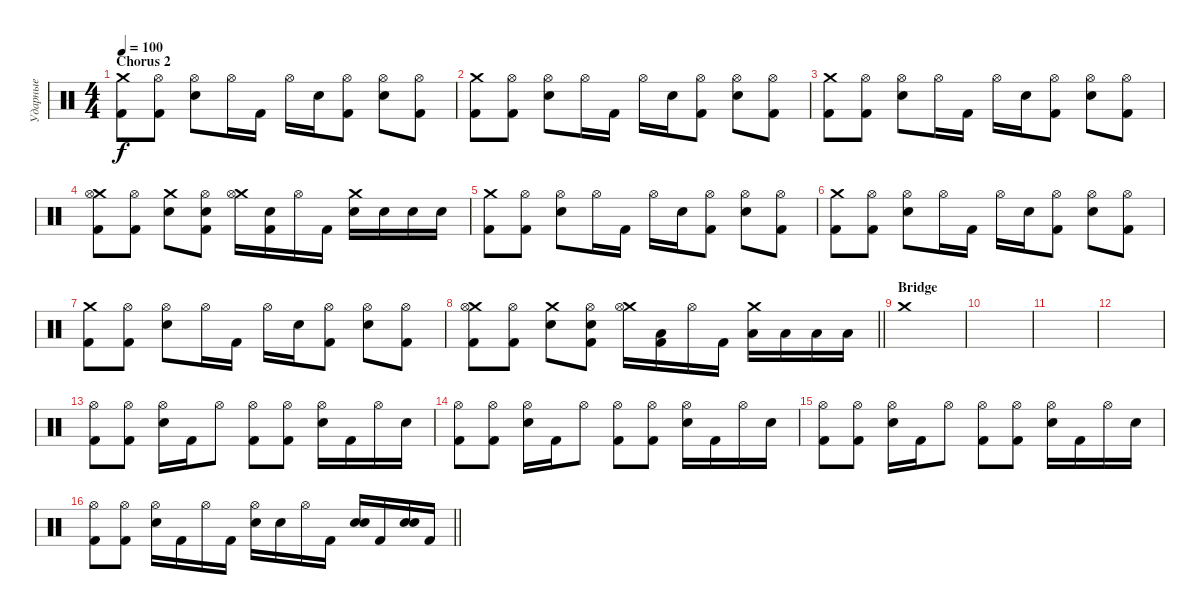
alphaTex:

\track ("Ударные" "Ударные") {instrument percussion}
\staff
\articulation defaults
\ts (4 4)
\section ("" "Chorus 2")
\tempo 100
\clef neutral
\ks c
("Crash medium (hit)" "Kick (hit) 2").8{dy f} ("Hi-Hat (open)" "Kick (hit) 2").8 ("Hi-Hat (open)" "Electric Snare (hit)").8 "Hi-Hat (open)".16 "Kick (hit) 2".16 "Hi-Hat (open)".16 "Electric Snare (hit)".16 ("Hi-Hat (open)" "Kick (hit) 2").8 ("Hi-Hat (open)" "Electric Snare (hit)").8 ("Hi-Hat (open)" "Kick (hit) 2").8 |
("Crash medium (hit)" "Kick (hit) 2").8 ("Hi-Hat (open)" "Kick (hit) 2").8 ("Hi-Hat (open)" "Electric Snare (hit)").8 "Hi-Hat (open)".16 "Kick (hit) 2".16 "Hi-Hat (open)".16 "Electric Snare (hit)".16 ("Hi-Hat (open)" "Kick (hit) 2").8 ("Hi-Hat (open)" "Electric Snare (hit)").8 ("Hi-Hat (open)" "Kick (hit) 2").8 |
("Crash medium (hit)" "Kick (hit) 2").8 ("Hi-Hat (open)" "Kick (hit) 2").8 ("Hi-Hat (open)" "Electric Snare (hit)").8 "Hi-Hat (open)".16 "Kick (hit) 2".16 "Hi-Hat (open)".16 "Electric Snare (hit)".16 ("Hi-Hat (open)" "Kick (hit) 2").8 ("Hi-Hat (open)" "Electric Snare (hit)").8 ("Hi-Hat (open)" "Kick (hit) 2").8 |
("Crash medium (hit)" "Hi-Hat (open)" "Kick (hit) 2").8 ("Hi-Hat (open)" "Kick (hit) 2").8 ("Crash medium (hit)" "Electric Snare (hit)").8 ("Hi-Hat (open)" "Electric Snare (hit)" "Kick (hit) 2").8 ("Crash medium (hit)" "Hi-Hat (open)").16 ("Electric Snare (hit)" "Kick (hit) 2").16 "Hi-Hat (open)".16 "Kick (hit) 2".16 ("Crash medium (hit)" "Electric Snare (hit)").16 "Electric Snare (hit)".16 "Electric Snare (hit)".16 "Electric Snare (hit)".16 |
("Crash medium (hit)" "Kick (hit) 2").8 ("Hi-Hat (open)" "Kick (hit) 2").8 ("Hi-Hat (open)" "Electric Snare (hit)").8 "Hi-Hat (open)".16 "Kick (hit) 2".16 "Hi-Hat (open)".16 "Electric Snare (hit)".16 ("Hi-Hat (open)" "Kick (hit) 2").8 ("Hi-Hat (open)" "Electric Snare (hit)").8 ("Hi-Hat (open)" "Kick (hit) 2").8 |
("Crash medium (hit)" "Kick (hit) 2").8 ("Hi-Hat (open)" "Kick (hit) 2").8 ("Hi-Hat (open)" "Electric Snare (hit)").8 "Hi-Hat (open)".16 "Kick (hit) 2".16 "Hi-Hat (open)".16 "Electric Snare (hit)".16 ("Hi-Hat (open)" "Kick (hit) 2").8 ("Hi-Hat (open)" "Electric Snare (hit)").8 ("Hi-Hat (open)" "Kick (hit) 2").8 |
("Crash medium (hit)" "Kick (hit) 2").8 ("Hi-Hat (open)" "Kick (hit) 2").8 ("Hi-Hat (open)" "Electric Snare (hit)").8 "Hi-Hat (open)".16 "Kick (hit) 2".16 "Hi-Hat (open)".16 "Electric Snare (hit)".16 ("Hi-Hat (open)" "Kick (hit) 2").8 ("Hi-Hat (open)" "Electric Snare (hit)").8 ("Hi-Hat (open)" "Kick (hit) 2").8 |
\barLineRight lightlight
("Crash medium (hit)" "Hi-Hat (open)" "Kick (hit) 2").8 ("Hi-Hat (open)" "Kick (hit) 2").8 ("Crash medium (hit)" "Electric Snare (hit)").8 ("Hi-Hat (open)" "Electric Snare (hit)" "Kick (hit) 2").8 ("Crash medium (hit)" "Hi-Hat (open)").16 ("Low Tom (hit)" "Kick (hit) 2").16 "Hi-Hat (open)".16 "Kick (hit) 2".16 ("Crash medium (hit)" "Low Tom (hit)").16 "Low Tom (hit)".16 "Low Floor Tom (hit)".16 "Low Floor Tom (hit)".16 |
\section ("" "Bridge")
"Crash medium (hit)".1 |
|
|
|
("Hi-Hat (open)" "Kick (hit) 2").8 ("Hi-Hat (open)" "Kick (hit) 2").8 ("Hi-Hat (open)" "Electric Snare (hit)").16 "Kick (hit) 2".16 "Hi-Hat (open)".8 ("Hi-Hat (open)" "Kick (hit) 2").8 ("Hi-Hat (open)" "Kick (hit) 2").8 ("Hi-Hat (open)" "Electric Snare (hit)").16 "Kick (hit) 2".16 "Hi-Hat (open)".16 "Electric Snare (hit)".16 |
("Hi-Hat (open)" "Kick (hit) 2").8 ("Hi-Hat (open)" "Kick (hit) 2").8 ("Hi-Hat (open)" "Electric Snare (hit)").16 "Kick (hit) 2".16 "Hi-Hat (open)".8 ("Hi-Hat (open)" "Kick (hit) 2").8 ("Hi-Hat (open)" "Kick (hit) 2").8 ("Hi-Hat (open)" "Electric Snare (hit)").16 "Kick (hit) 2".16 "Hi-Hat (open)".16 "Electric Snare (hit)".16 |
("Hi-Hat (open)" "Kick (hit) 2").8 ("Hi-Hat (open)" "Kick (hit) 2").8 ("Hi-Hat (open)" "Electric Snare (hit)").16 "Kick (hit) 2".16 "Hi-Hat (open)".8 ("Hi-Hat (open)" "Kick (hit) 2").8 ("Hi-Hat (open)" "Kick (hit) 2").8 ("Hi-Hat (open)" "Electric Snare (hit)").16 "Kick (hit) 2".16 "Hi-Hat (open)".16 "Electric Snare (hit)".16 |
\barLineRight lightlight
("Hi-Hat (open)" "Kick (hit) 2").8 ("Hi-Hat (open)" "Kick (hit) 2").8 ("Hi-Hat (open)" "Electric Snare (hit)").16 "Kick (hit) 2".16 "Hi-Hat (open)".16 "Kick (hit) 2".16 ("Hi-Hat (open)" "Electric Snare (hit)").16 "Electric Snare (hit)".16 "Hi-Hat (open)".16 "Kick (hit) 2".16 ("Electric Snare (hit)" "Electric Snare (hit)").16 "Kick (hit) 2".16 ("Electric Snare (hit)" "Electric Snare (hit)").16 "Kick (hit) 2".16
